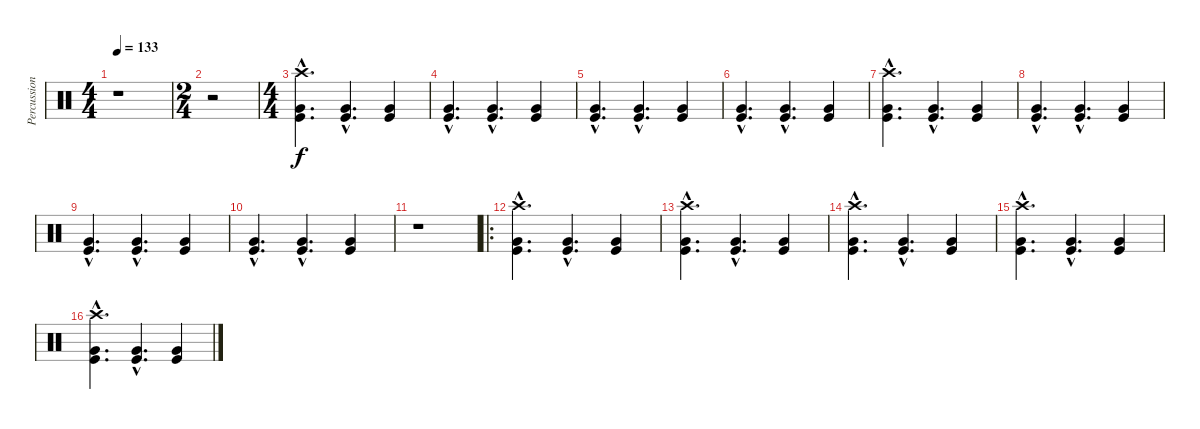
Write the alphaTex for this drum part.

\track ("Percussion" "Percussion") {instrument percussion}
\staff {score}
\articulation defaults
\ts (4 4)
\tempo 133
\clef neutral
\ks c
r.1{dy f} |
\ts (2 4)
r.2 |
\ts (4 4)
("Crash high (hit)"{hac} "Very Low Tom (hit)"{hac} "Kick (hit)"{hac}).4{d} ("Very Low Tom (hit)"{hac} "Kick (hit)"{hac}).4{d} ("Very Low Tom (hit)" "Kick (hit)").4 |
("Very Low Tom (hit)"{hac} "Kick (hit)"{hac}).4{d} ("Very Low Tom (hit)"{hac} "Kick (hit)"{hac}).4{d} ("Very Low Tom (hit)" "Kick (hit)").4 |
("Very Low Tom (hit)"{hac} "Kick (hit)"{hac}).4{d} ("Very Low Tom (hit)"{hac} "Kick (hit)"{hac}).4{d} ("Very Low Tom (hit)" "Kick (hit)").4 |
("Very Low Tom (hit)"{hac} "Kick (hit)"{hac}).4{d} ("Very Low Tom (hit)"{hac} "Kick (hit)"{hac}).4{d} ("Very Low Tom (hit)" "Kick (hit)").4 |
("Crash high (hit)"{hac} "Very Low Tom (hit)"{hac} "Kick (hit)"{hac}).4{d} ("Very Low Tom (hit)"{hac} "Kick (hit)"{hac}).4{d} ("Very Low Tom (hit)" "Kick (hit)").4 |
("Very Low Tom (hit)"{hac} "Kick (hit)"{hac}).4{d} ("Very Low Tom (hit)"{hac} "Kick (hit)"{hac}).4{d} ("Very Low Tom (hit)" "Kick (hit)").4 |
("Very Low Tom (hit)"{hac} "Kick (hit)"{hac}).4{d} ("Very Low Tom (hit)"{hac} "Kick (hit)"{hac}).4{d} ("Very Low Tom (hit)" "Kick (hit)").4 |
("Very Low Tom (hit)"{hac} "Kick (hit)"{hac}).4{d} ("Very Low Tom (hit)"{hac} "Kick (hit)"{hac}).4{d} ("Very Low Tom (hit)" "Kick (hit)").4 |
r.1 |
\ro
("Crash high (hit)"{hac} "Very Low Tom (hit)"{hac} "Kick (hit)"{hac}).4{d} ("Very Low Tom (hit)"{hac} "Kick (hit)"{hac}).4{d} ("Very Low Tom (hit)" "Kick (hit)").4 |
("Crash high (hit)"{hac} "Very Low Tom (hit)"{hac} "Kick (hit)"{hac}).4{d} ("Very Low Tom (hit)"{hac} "Kick (hit)"{hac}).4{d} ("Very Low Tom (hit)" "Kick (hit)").4 |
("Crash high (hit)"{hac} "Very Low Tom (hit)"{hac} "Kick (hit)"{hac}).4{d} ("Very Low Tom (hit)"{hac} "Kick (hit)"{hac}).4{d} ("Very Low Tom (hit)" "Kick (hit)").4 |
("Crash high (hit)"{hac} "Very Low Tom (hit)"{hac} "Kick (hit)"{hac}).4{d} ("Very Low Tom (hit)"{hac} "Kick (hit)"{hac}).4{d} ("Very Low Tom (hit)" "Kick (hit)").4 |
("Crash high (hit)"{hac} "Very Low Tom (hit)"{hac} "Kick (hit)"{hac}).4{d} ("Very Low Tom (hit)"{hac} "Kick (hit)"{hac}).4{d} ("Very Low Tom (hit)" "Kick (hit)").4
